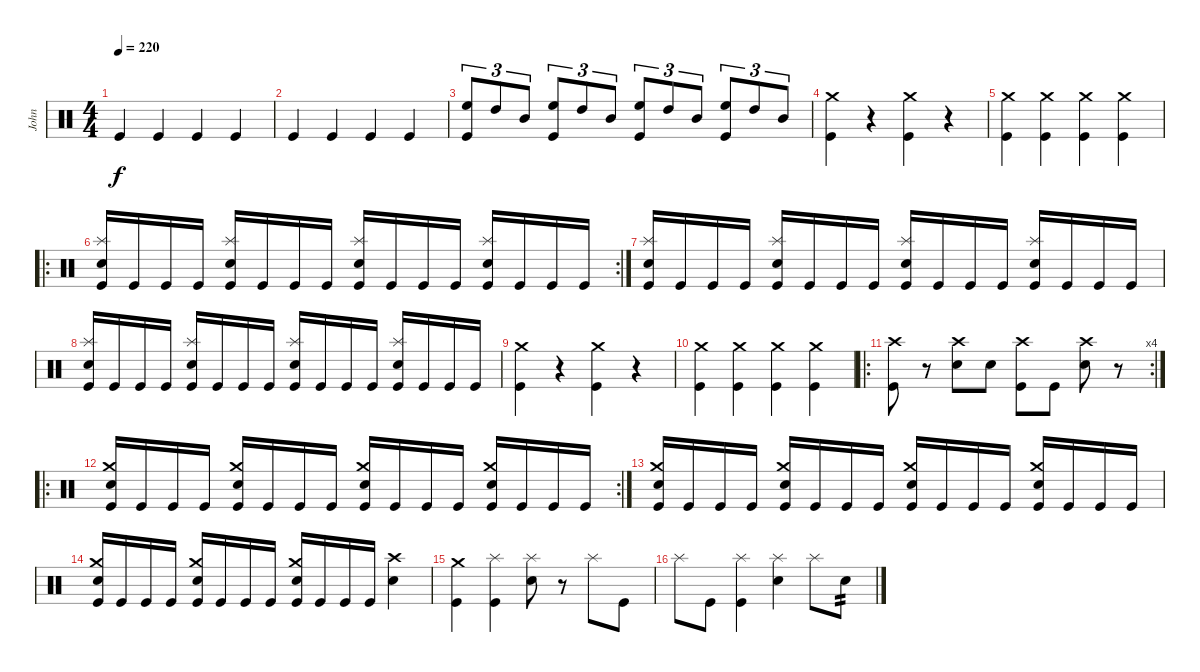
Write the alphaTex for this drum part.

\track ("John" "John") {instrument percussion}
\staff {score}
\articulation defaults
\ts (4 4)
\tempo 220
\clef neutral
\ks c "Kick (hit)".4{dy f} "Kick (hit)".4 "Kick (hit)".4 "Kick (hit)".4
|
"Kick (hit)".4 "Kick (hit)".4 "Kick (hit)".4 "Kick (hit)".4 |
("High Floor Tom (hit)" "Kick (hit)").8{tu (3 2)} "High Tom (hit)".8{tu (3 2)} "Mid Tom (hit)".8{tu (3 2)} ("High Floor Tom (hit)" "Kick (hit)").8{tu (3 2)} "High Tom (hit)".8{tu (3 2)} "Mid Tom (hit)".8{tu (3 2)} ("High Floor Tom (hit)" "Kick (hit)").8{tu (3 2)} "High Tom (hit)".8{tu (3 2)} "Mid Tom (hit)".8{tu (3 2)} ("High Floor Tom (hit)" "Kick (hit)").8{tu (3 2)} "High Tom (hit)".8{tu (3 2)} "Mid Tom (hit)".8{tu (3 2)} |
("Crash medium (hit)" "Kick (hit)").4 r.4 ("Crash medium (hit)" "Kick (hit)").4 r.4 |
("Crash medium (hit)" "Kick (hit)").4 ("Crash medium (hit)" "Kick (hit)").4 ("Crash medium (hit)" "Kick (hit)").4 ("Crash medium (hit)" "Kick (hit)").4 |
\ro
\rc 2
("Splash (hit)" "Snare (hit) 2" "Kick (hit)").16 "Kick (hit)".16 "Kick (hit)".16 "Kick (hit)".16 ("Splash (hit)" "Snare (hit) 2" "Kick (hit)").16 "Kick (hit)".16 "Kick (hit)".16 "Kick (hit)".16 ("Splash (hit)" "Snare (hit) 2" "Kick (hit)").16 "Kick (hit)".16 "Kick (hit)".16 "Kick (hit)".16 ("Splash (hit)" "Snare (hit) 2" "Kick (hit)").16 "Kick (hit)".16 "Kick (hit)".16 "Kick (hit)".16 |
("Splash (hit)" "Snare (hit) 2" "Kick (hit)").16 "Kick (hit)".16 "Kick (hit)".16 "Kick (hit)".16 ("Splash (hit)" "Snare (hit) 2" "Kick (hit)").16 "Kick (hit)".16 "Kick (hit)".16 "Kick (hit)".16 ("Splash (hit)" "Snare (hit) 2" "Kick (hit)").16 "Kick (hit)".16 "Kick (hit)".16 "Kick (hit)".16 ("Splash (hit)" "Snare (hit) 2" "Kick (hit)").16 "Kick (hit)".16 "Kick (hit)".16 "Kick (hit)".16 |
("Splash (hit)" "Snare (hit) 2" "Kick (hit)").16 "Kick (hit)".16 "Kick (hit)".16 "Kick (hit)".16 ("Splash (hit)" "Snare (hit) 2" "Kick (hit)").16 "Kick (hit)".16 "Kick (hit)".16 "Kick (hit)".16 ("Splash (hit)" "Snare (hit) 2" "Kick (hit)").16 "Kick (hit)".16 "Kick (hit)".16 "Kick (hit)".16 ("Splash (hit)" "Snare (hit) 2" "Kick (hit)").16 "Kick (hit)".16 "Kick (hit)".16 "Kick (hit)".16 |
("Crash medium (hit)" "Kick (hit)").4 r.4 ("Crash medium (hit)" "Kick (hit)").4 r.4 |
("Crash medium (hit)" "Kick (hit)").4 ("Crash medium (hit)" "Kick (hit)").4 ("Crash medium (hit)" "Kick (hit)").4 ("Crash medium (hit)" "Kick (hit)").4 |
\ro
\rc 4
("Crash high (hit)" "Kick (hit)").8 r.8 ("Crash high (hit)" "Snare (hit) 2").8 "Snare (hit) 2".8 ("Crash high (hit)" "Kick (hit)").8 "Kick (hit)".8 ("Crash high (hit)" "Snare (hit) 2").8 r.8 |
\ro
\rc 2
("Crash medium (hit)" "Snare (hit) 2" "Kick (hit)").16 "Kick (hit)".16 "Kick (hit)".16 "Kick (hit)".16 ("Crash medium (hit)" "Snare (hit) 2" "Kick (hit)").16 "Kick (hit)".16 "Kick (hit)".16 "Kick (hit)".16 ("Crash medium (hit)" "Snare (hit) 2" "Kick (hit)").16 "Kick (hit)".16 "Kick (hit)".16 "Kick (hit)".16 ("Crash medium (hit)" "Snare (hit) 2" "Kick (hit)").16 "Kick (hit)".16 "Kick (hit)".16 "Kick (hit)".16 |
("Crash medium (hit)" "Snare (hit) 2" "Kick (hit)").16 "Kick (hit)".16 "Kick (hit)".16 "Kick (hit)".16 ("Crash medium (hit)" "Snare (hit) 2" "Kick (hit)").16 "Kick (hit)".16 "Kick (hit)".16 "Kick (hit)".16 ("Crash medium (hit)" "Snare (hit) 2" "Kick (hit)").16 "Kick (hit)".16 "Kick (hit)".16 "Kick (hit)".16 ("Crash medium (hit)" "Snare (hit) 2" "Kick (hit)").16 "Kick (hit)".16 "Kick (hit)".16 "Kick (hit)".16 |
("Crash medium (hit)" "Snare (hit) 2" "Kick (hit)").16 "Kick (hit)".16 "Kick (hit)".16 "Kick (hit)".16 ("Crash medium (hit)" "Snare (hit) 2" "Kick (hit)").16 "Kick (hit)".16 "Kick (hit)".16 "Kick (hit)".16 ("Crash medium (hit)" "Snare (hit) 2" "Kick (hit)").16 "Kick (hit)".16 "Kick (hit)".16 "Kick (hit)".16 ("Crash high (hit)" "Snare (hit) 2").4 |
("Crash medium (hit)" "Kick (hit)").4 ("Splash (hit)" "Kick (hit)").4 ("Splash (hit)" "Snare (hit) 2").8 r.8 "Splash (hit)".8 "Kick (hit)".8 |
"Splash (hit)".8 "Kick (hit)".8 ("Splash (hit)" "Kick (hit)").4 ("Splash (hit)" "Snare (hit) 2").4 "Splash (hit)".8 "Snare (hit) 2".8{tp 2}
